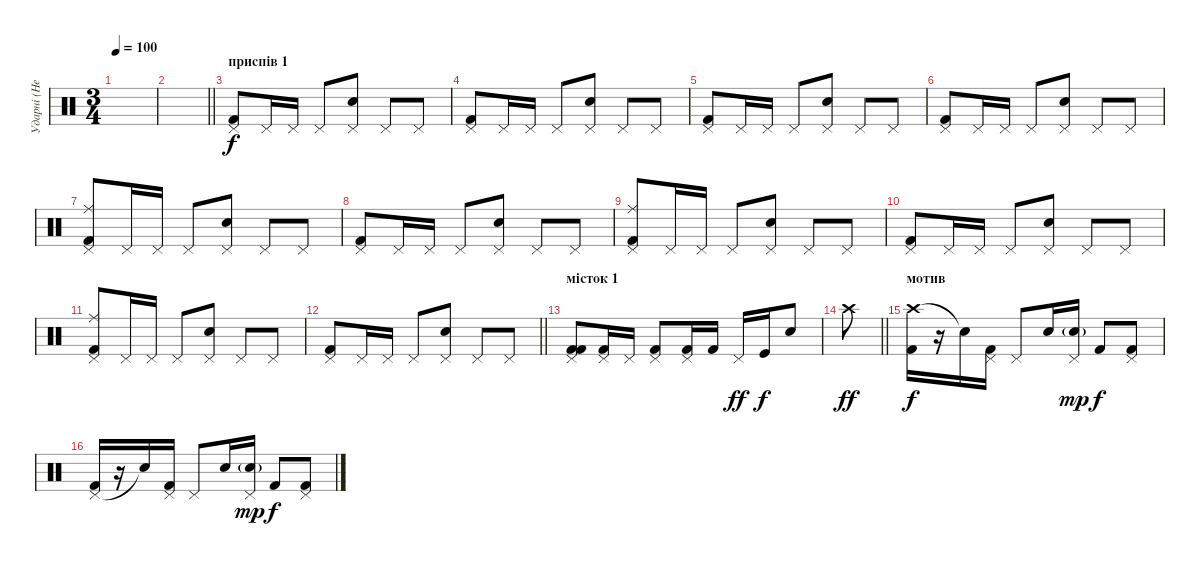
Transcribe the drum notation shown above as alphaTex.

\track ("Ударні (Недашковський)" "Ударні (Не") {instrument percussion}
\staff {score}
\articulation defaults
\ts (3 4)
\tempo 100
\clef neutral
\ks c
|
\barLineRight lightlight
|
\section ("" "приспів 1")
("Pedal Hi-Hat (hit)" "Kick (hit) 2").8 "Pedal Hi-Hat (hit)".16 "Pedal Hi-Hat (hit)".16 "Pedal Hi-Hat (hit)".8 ("Pedal Hi-Hat (hit)" "Snare (hit) 2").8 "Pedal Hi-Hat (hit)".8 "Pedal Hi-Hat (hit)".8 |
("Pedal Hi-Hat (hit)" "Kick (hit) 2").8 "Pedal Hi-Hat (hit)".16 "Pedal Hi-Hat (hit)".16 "Pedal Hi-Hat (hit)".8 ("Pedal Hi-Hat (hit)" "Snare (hit) 2").8 "Pedal Hi-Hat (hit)".8 "Pedal Hi-Hat (hit)".8 |
("Pedal Hi-Hat (hit)" "Kick (hit) 2").8 "Pedal Hi-Hat (hit)".16 "Pedal Hi-Hat (hit)".16 "Pedal Hi-Hat (hit)".8 ("Pedal Hi-Hat (hit)" "Snare (hit) 2").8 "Pedal Hi-Hat (hit)".8 "Pedal Hi-Hat (hit)".8 |
("Pedal Hi-Hat (hit)" "Kick (hit) 2").8 "Pedal Hi-Hat (hit)".16 "Pedal Hi-Hat (hit)".16 "Pedal Hi-Hat (hit)".8 ("Pedal Hi-Hat (hit)" "Snare (hit) 2").8 "Pedal Hi-Hat (hit)".8 "Pedal Hi-Hat (hit)".8 |
("Pedal Hi-Hat (hit)" "Ride (middle)" "Kick (hit) 2").8 "Pedal Hi-Hat (hit)".16 "Pedal Hi-Hat (hit)".16 "Pedal Hi-Hat (hit)".8 ("Pedal Hi-Hat (hit)" "Snare (hit) 2").8 "Pedal Hi-Hat (hit)".8 "Pedal Hi-Hat (hit)".8 |
("Pedal Hi-Hat (hit)" "Kick (hit) 2").8 "Pedal Hi-Hat (hit)".16 "Pedal Hi-Hat (hit)".16 "Pedal Hi-Hat (hit)".8 ("Pedal Hi-Hat (hit)" "Snare (hit) 2").8 "Pedal Hi-Hat (hit)".8 "Pedal Hi-Hat (hit)".8 |
("Pedal Hi-Hat (hit)" "Ride (middle)" "Kick (hit) 2").8 "Pedal Hi-Hat (hit)".16 "Pedal Hi-Hat (hit)".16 "Pedal Hi-Hat (hit)".8 ("Pedal Hi-Hat (hit)" "Snare (hit) 2").8 "Pedal Hi-Hat (hit)".8 "Pedal Hi-Hat (hit)".8 |
("Pedal Hi-Hat (hit)" "Kick (hit) 2").8 "Pedal Hi-Hat (hit)".16 "Pedal Hi-Hat (hit)".16 "Pedal Hi-Hat (hit)".8 ("Pedal Hi-Hat (hit)" "Snare (hit) 2").8 "Pedal Hi-Hat (hit)".8 "Pedal Hi-Hat (hit)".8 |
("Pedal Hi-Hat (hit)" "Ride (middle)" "Kick (hit) 2").8 "Pedal Hi-Hat (hit)".16 "Pedal Hi-Hat (hit)".16 "Pedal Hi-Hat (hit)".8 ("Pedal Hi-Hat (hit)" "Snare (hit) 2").8 "Pedal Hi-Hat (hit)".8 "Pedal Hi-Hat (hit)".8 |
\barLineRight lightlight
("Pedal Hi-Hat (hit)" "Kick (hit) 2").8 "Pedal Hi-Hat (hit)".16 "Pedal Hi-Hat (hit)".16 "Pedal Hi-Hat (hit)".8 ("Pedal Hi-Hat (hit)" "Snare (hit) 2").8 "Pedal Hi-Hat (hit)".8 "Pedal Hi-Hat (hit)".8 |
\section ("" "місток 1")
("Pedal Hi-Hat (hit)" "Kick (hit) 2" "Kick (hit) 2").8 ("Pedal Hi-Hat (hit)" "Kick (hit) 2").16 "Pedal Hi-Hat (hit)".16 ("Pedal Hi-Hat (hit)" "Kick (hit) 2").8 ("Pedal Hi-Hat (hit)" "Kick (hit) 2").16 "Kick (hit) 2".16 "Pedal Hi-Hat (hit)".16{dy ff} "Kick (hit)".16{dy f} "Snare (hit) 2".8 |
\barLineRight lightlight "Crash high (hit)".8{dy ff}
|
\section ("" "мотив")
("Crash high (hit)" "Kick (hit) 2").16{dy f} r.16 "Snare (hit)"{t}.16 ("Pedal Hi-Hat (hit)" "Kick (hit) 2").16 "Pedal Hi-Hat (hit)".8 "Snare (hit) 2".16 ("Pedal Hi-Hat (hit)" "Electric Snare (hit)"{g}).16{dy mp} "Kick (hit) 2".8{dy f} ("Pedal Hi-Hat (hit)" "Kick (hit) 2").8 |
("Pedal Hi-Hat (hit)" "Kick (hit) 2").16 r.16 "Snare (hit)"{t}.16 ("Pedal Hi-Hat (hit)" "Kick (hit) 2").16 "Pedal Hi-Hat (hit)".8 "Snare (hit) 2".16 ("Pedal Hi-Hat (hit)" "Electric Snare (hit)"{g}).16{dy mp} "Kick (hit) 2".8{dy f} ("Pedal Hi-Hat (hit)" "Kick (hit) 2").8
